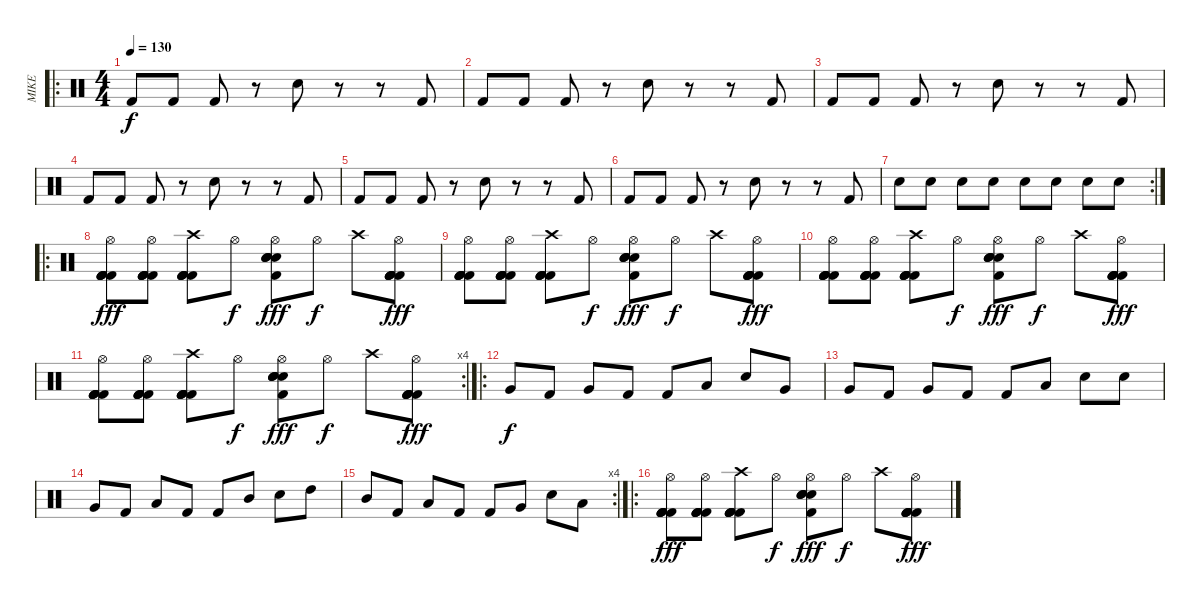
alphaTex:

\track ("MIKE" "MIKE") {instrument percussion}
\staff {score}
\articulation defaults
\ro
\ts (4 4)
\tempo 130
\clef neutral
\ks c "Kick (hit) 2".8{dy f} "Kick (hit) 2".8 "Kick (hit) 2".8
r.8 "Snare (hit) 2".8 r.8 r.8 "Kick (hit) 2".8 |
"Kick (hit) 2".8 "Kick (hit) 2".8 "Kick (hit) 2".8 r.8 "Snare (hit) 2".8 r.8 r.8 "Kick (hit) 2".8 |
"Kick (hit) 2".8 "Kick (hit) 2".8 "Kick (hit) 2".8 r.8 "Snare (hit) 2".8 r.8 r.8 "Kick (hit) 2".8 |
"Kick (hit) 2".8 "Kick (hit) 2".8 "Kick (hit) 2".8 r.8 "Snare (hit) 2".8 r.8 r.8 "Kick (hit) 2".8 |
"Kick (hit) 2".8 "Kick (hit) 2".8 "Kick (hit) 2".8 r.8 "Snare (hit) 2".8 r.8 r.8 "Kick (hit) 2".8 |
"Kick (hit) 2".8 "Kick (hit) 2".8 "Kick (hit) 2".8 r.8 "Snare (hit) 2".8 r.8 r.8 "Kick (hit) 2".8 |
\rc 2 "Snare (hit) 2".8 "Snare (hit) 2".8 "Snare (hit) 2".8 "Snare (hit) 2".8 "Snare (hit) 2".8 "Snare (hit) 2".8 "Snare (hit) 2".8 "Snare (hit) 2".8
|
\ro
("Hi-Hat (open)" "Kick (hit) 2" "Kick (hit) 2" "Kick (hit) 2" "Kick (hit) 2" "Kick (hit) 2").8{dy fff} ("Hi-Hat (open)" "Kick (hit) 2" "Kick (hit) 2" "Kick (hit) 2" "Kick (hit) 2" "Kick (hit) 2").8 ("Crash high (hit)" "Kick (hit) 2" "Kick (hit) 2" "Kick (hit) 2" "Kick (hit) 2" "Kick (hit) 2").8 "Hi-Hat (open)".8{dy f} ("Hi-Hat (open)" "Kick (hit) 2" "Snare (hit) 2" "Snare (hit) 2" "Snare (hit) 2" "Snare (hit) 2").8{dy fff} "Hi-Hat (open)".8{dy f} "Crash high (hit)".8 ("Hi-Hat (open)" "Kick (hit) 2" "Kick (hit) 2" "Kick (hit) 2" "Kick (hit) 2" "Kick (hit) 2").8{dy fff} |
("Hi-Hat (open)" "Kick (hit) 2" "Kick (hit) 2" "Kick (hit) 2" "Kick (hit) 2" "Kick (hit) 2").8 ("Hi-Hat (open)" "Kick (hit) 2" "Kick (hit) 2" "Kick (hit) 2" "Kick (hit) 2" "Kick (hit) 2").8 ("Crash high (hit)" "Kick (hit) 2" "Kick (hit) 2" "Kick (hit) 2" "Kick (hit) 2" "Kick (hit) 2").8 "Hi-Hat (open)".8{dy f} ("Hi-Hat (open)" "Kick (hit) 2" "Snare (hit) 2" "Snare (hit) 2" "Snare (hit) 2" "Snare (hit) 2").8{dy fff} "Hi-Hat (open)".8{dy f} "Crash high (hit)".8 ("Hi-Hat (open)" "Kick (hit) 2" "Kick (hit) 2" "Kick (hit) 2" "Kick (hit) 2" "Kick (hit) 2").8{dy fff} |
("Hi-Hat (open)" "Kick (hit) 2" "Kick (hit) 2" "Kick (hit) 2" "Kick (hit) 2" "Kick (hit) 2").8 ("Hi-Hat (open)" "Kick (hit) 2" "Kick (hit) 2" "Kick (hit) 2" "Kick (hit) 2" "Kick (hit) 2").8 ("Crash high (hit)" "Kick (hit) 2" "Kick (hit) 2" "Kick (hit) 2" "Kick (hit) 2" "Kick (hit) 2").8 "Hi-Hat (open)".8{dy f} ("Hi-Hat (open)" "Kick (hit) 2" "Snare (hit) 2" "Snare (hit) 2" "Snare (hit) 2" "Snare (hit) 2").8{dy fff} "Hi-Hat (open)".8{dy f} "Crash high (hit)".8 ("Hi-Hat (open)" "Kick (hit) 2" "Kick (hit) 2" "Kick (hit) 2" "Kick (hit) 2" "Kick (hit) 2").8{dy fff} |
\rc 4
("Hi-Hat (open)" "Kick (hit) 2" "Kick (hit) 2" "Kick (hit) 2" "Kick (hit) 2" "Kick (hit) 2").8 ("Hi-Hat (open)" "Kick (hit) 2" "Kick (hit) 2" "Kick (hit) 2" "Kick (hit) 2" "Kick (hit) 2").8 ("Crash high (hit)" "Kick (hit) 2" "Kick (hit) 2" "Kick (hit) 2" "Kick (hit) 2" "Kick (hit) 2").8 "Hi-Hat (open)".8{dy f} ("Hi-Hat (open)" "Kick (hit) 2" "Snare (hit) 2" "Snare (hit) 2" "Snare (hit) 2" "Snare (hit) 2").8{dy fff} "Hi-Hat (open)".8{dy f} "Crash high (hit)".8 ("Hi-Hat (open)" "Kick (hit) 2" "Kick (hit) 2" "Kick (hit) 2" "Kick (hit) 2" "Kick (hit) 2").8{dy fff} |
\ro "Very Low Tom (hit)".8{dy f} "Kick (hit) 2".8 "Very Low Tom (hit)".8 "Kick (hit) 2".8 "Kick (hit) 2".8 "Low Tom (hit)".8 "Electric Snare (hit)".8 "Very Low Tom (hit)".8
|
"Very Low Tom (hit)".8 "Kick (hit) 2".8 "Very Low Tom (hit)".8 "Kick (hit) 2".8 "Kick (hit) 2".8 "Low Tom (hit)".8 "Electric Snare (hit)".8 "Electric Snare (hit)".8 |
"Very Low Tom (hit)".8 "Kick (hit) 2".8 "Low Tom (hit)".8 "Kick (hit) 2".8 "Kick (hit) 2".8 "Mid Tom (hit)".8 "Electric Snare (hit)".8 "High Tom (hit)".8 |
\rc 4 "Mid Tom (hit)".8 "Kick (hit) 2".8 "Low Tom (hit)".8 "Kick (hit) 2".8 "Kick (hit) 2".8 "Very Low Tom (hit)".8 "Electric Snare (hit)".8 "Low Floor Tom (hit)".8
|
\ro
("Hi-Hat (open)" "Kick (hit) 2" "Kick (hit) 2" "Kick (hit) 2" "Kick (hit) 2" "Kick (hit) 2").8{dy fff} ("Hi-Hat (open)" "Kick (hit) 2" "Kick (hit) 2" "Kick (hit) 2" "Kick (hit) 2" "Kick (hit) 2").8 ("Crash high (hit)" "Kick (hit) 2" "Kick (hit) 2" "Kick (hit) 2" "Kick (hit) 2" "Kick (hit) 2").8 "Hi-Hat (open)".8{dy f} ("Hi-Hat (open)" "Kick (hit) 2" "Snare (hit) 2" "Snare (hit) 2" "Snare (hit) 2" "Snare (hit) 2").8{dy fff} "Hi-Hat (open)".8{dy f} "Crash high (hit)".8 ("Hi-Hat (open)" "Kick (hit) 2" "Kick (hit) 2" "Kick (hit) 2" "Kick (hit) 2" "Kick (hit) 2").8{dy fff}
